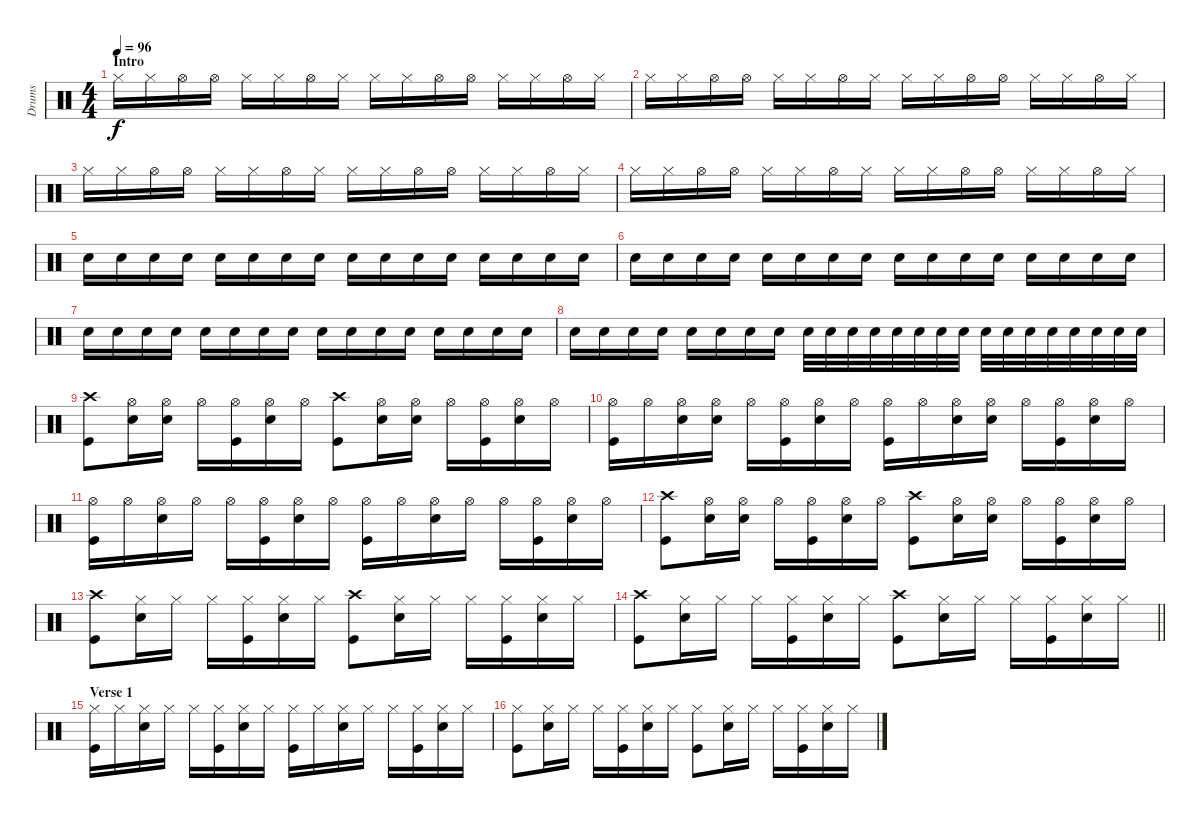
\track ("Drums" "Drums") {instrument percussion}
\staff {score}
\articulation defaults
\ts (4 4)
\section ("" "Intro")
\tempo 96
\clef neutral
\ks c "Hi-Hat (closed)".16{dy f} "Hi-Hat (closed)".16 "Hi-Hat (open)".16 "Hi-Hat (open)".16 "Hi-Hat (closed)".16 "Hi-Hat (closed)".16 "Hi-Hat (open)".16 "Hi-Hat (closed)".16 "Hi-Hat (closed)".16 "Hi-Hat (closed)".16 "Hi-Hat (open)".16 "Hi-Hat (open)".16 "Hi-Hat (closed)".16 "Hi-Hat (closed)".16 "Hi-Hat (open)".16 "Hi-Hat (closed)".16
|
"Hi-Hat (closed)".16 "Hi-Hat (closed)".16 "Hi-Hat (open)".16 "Hi-Hat (open)".16 "Hi-Hat (closed)".16 "Hi-Hat (closed)".16 "Hi-Hat (open)".16 "Hi-Hat (closed)".16 "Hi-Hat (closed)".16 "Hi-Hat (closed)".16 "Hi-Hat (open)".16 "Hi-Hat (open)".16 "Hi-Hat (closed)".16 "Hi-Hat (closed)".16 "Hi-Hat (open)".16 "Hi-Hat (closed)".16 |
"Hi-Hat (closed)".16 "Hi-Hat (closed)".16 "Hi-Hat (open)".16 "Hi-Hat (open)".16 "Hi-Hat (closed)".16 "Hi-Hat (closed)".16 "Hi-Hat (open)".16 "Hi-Hat (closed)".16 "Hi-Hat (closed)".16 "Hi-Hat (closed)".16 "Hi-Hat (open)".16 "Hi-Hat (open)".16 "Hi-Hat (closed)".16 "Hi-Hat (closed)".16 "Hi-Hat (open)".16 "Hi-Hat (closed)".16 |
"Hi-Hat (closed)".16 "Hi-Hat (closed)".16 "Hi-Hat (open)".16 "Hi-Hat (open)".16 "Hi-Hat (closed)".16 "Hi-Hat (closed)".16 "Hi-Hat (open)".16 "Hi-Hat (closed)".16 "Hi-Hat (closed)".16 "Hi-Hat (closed)".16 "Hi-Hat (open)".16 "Hi-Hat (open)".16 "Hi-Hat (closed)".16 "Hi-Hat (closed)".16 "Hi-Hat (open)".16 "Hi-Hat (closed)".16 |
"Snare (hit) 2".16{volume 3} "Snare (hit) 2".16 "Snare (hit) 2".16 "Snare (hit) 2".16 "Snare (hit) 2".16 "Snare (hit) 2".16 "Snare (hit) 2".16 "Snare (hit) 2".16 "Snare (hit) 2".16 "Snare (hit) 2".16 "Snare (hit) 2".16 "Snare (hit) 2".16 "Snare (hit) 2".16 "Snare (hit) 2".16 "Snare (hit) 2".16 "Snare (hit) 2".16 |
"Snare (hit) 2".16{volume 7} "Snare (hit) 2".16 "Snare (hit) 2".16 "Snare (hit) 2".16 "Snare (hit) 2".16 "Snare (hit) 2".16 "Snare (hit) 2".16 "Snare (hit) 2".16 "Snare (hit) 2".16 "Snare (hit) 2".16 "Snare (hit) 2".16 "Snare (hit) 2".16 "Snare (hit) 2".16 "Snare (hit) 2".16 "Snare (hit) 2".16 "Snare (hit) 2".16 |
"Snare (hit) 2".16{volume 10} "Snare (hit) 2".16 "Snare (hit) 2".16 "Snare (hit) 2".16 "Snare (hit) 2".16 "Snare (hit) 2".16 "Snare (hit) 2".16 "Snare (hit) 2".16 "Snare (hit) 2".16 "Snare (hit) 2".16 "Snare (hit) 2".16 "Snare (hit) 2".16 "Snare (hit) 2".16 "Snare (hit) 2".16 "Snare (hit) 2".16 "Snare (hit) 2".16 |
"Snare (hit) 2".16{volume 13} "Snare (hit) 2".16 "Snare (hit) 2".16 "Snare (hit) 2".16 "Snare (hit) 2".16 "Snare (hit) 2".16 "Snare (hit) 2".16 "Snare (hit) 2".16 "Snare (hit) 2".32 "Snare (hit) 2".32 "Snare (hit) 2".32 "Snare (hit) 2".32 "Snare (hit) 2".32 "Snare (hit) 2".32 "Snare (hit) 2".32 "Snare (hit) 2".32 "Snare (hit) 2".32 "Snare (hit) 2".32 "Snare (hit) 2".32 "Snare (hit) 2".32 "Snare (hit) 2".32 "Snare (hit) 2".32 "Snare (hit) 2".32 "Snare (hit) 2".32 |
("Crash high (hit)" "Kick (hit)").8 ("Hi-Hat (open)" "Snare (hit) 2").16 ("Hi-Hat (open)" "Snare (hit) 2").16 "Hi-Hat (open)".16 ("Hi-Hat (open)" "Kick (hit)").16 ("Hi-Hat (open)" "Snare (hit) 2").16 "Hi-Hat (open)".16 ("Crash high (hit)" "Kick (hit)").8 ("Hi-Hat (open)" "Snare (hit) 2").16 ("Hi-Hat (open)" "Snare (hit) 2").16 "Hi-Hat (open)".16 ("Hi-Hat (open)" "Kick (hit)").16 ("Hi-Hat (open)" "Snare (hit) 2").16 "Hi-Hat (open)".16 |
("Hi-Hat (open)" "Kick (hit)").16 "Hi-Hat (open)".16 ("Hi-Hat (open)" "Snare (hit) 2").16 ("Hi-Hat (open)" "Snare (hit) 2").16 "Hi-Hat (open)".16 ("Hi-Hat (open)" "Kick (hit)").16 ("Hi-Hat (open)" "Snare (hit) 2").16 "Hi-Hat (open)".16 ("Hi-Hat (open)" "Kick (hit)").16 "Hi-Hat (open)".16 ("Hi-Hat (open)" "Snare (hit) 2").16 ("Hi-Hat (open)" "Snare (hit) 2").16 "Hi-Hat (open)".16 ("Hi-Hat (open)" "Kick (hit)").16 ("Hi-Hat (open)" "Snare (hit) 2").16 "Hi-Hat (open)".16 |
("Hi-Hat (open)" "Kick (hit)").16 "Hi-Hat (open)".16 ("Hi-Hat (open)" "Snare (hit) 2").16 "Hi-Hat (open)".16 "Hi-Hat (open)".16 ("Hi-Hat (open)" "Kick (hit)").16 ("Hi-Hat (open)" "Snare (hit) 2").16 "Hi-Hat (open)".16 ("Hi-Hat (open)" "Kick (hit)").16 "Hi-Hat (open)".16 ("Hi-Hat (open)" "Snare (hit) 2").16 "Hi-Hat (open)".16 "Hi-Hat (open)".16 ("Hi-Hat (open)" "Kick (hit)").16 ("Hi-Hat (open)" "Snare (hit) 2").16 "Hi-Hat (open)".16 |
("Crash high (hit)" "Kick (hit)").8 ("Hi-Hat (open)" "Snare (hit) 2").16 ("Hi-Hat (open)" "Snare (hit) 2").16 "Hi-Hat (open)".16 ("Hi-Hat (open)" "Kick (hit)").16 ("Hi-Hat (open)" "Snare (hit) 2").16 "Hi-Hat (open)".16 ("Crash high (hit)" "Kick (hit)").8 ("Hi-Hat (open)" "Snare (hit) 2").16 ("Hi-Hat (open)" "Snare (hit) 2").16 "Hi-Hat (open)".16 ("Hi-Hat (open)" "Kick (hit)").16 ("Hi-Hat (open)" "Snare (hit) 2").16 "Hi-Hat (open)".16 |
("Crash high (hit)" "Kick (hit)").8 ("Hi-Hat (closed)" "Snare (hit) 2").16 "Hi-Hat (closed)".16 "Hi-Hat (closed)".16 ("Hi-Hat (closed)" "Kick (hit)").16 ("Hi-Hat (closed)" "Snare (hit) 2").16 "Hi-Hat (closed)".16 ("Crash high (hit)" "Kick (hit)").8 ("Hi-Hat (closed)" "Snare (hit) 2").16 "Hi-Hat (closed)".16 "Hi-Hat (closed)".16 ("Hi-Hat (closed)" "Kick (hit)").16 ("Hi-Hat (closed)" "Snare (hit) 2").16 "Hi-Hat (closed)".16 |
\barLineRight lightlight
("Crash high (hit)" "Kick (hit)").8 ("Hi-Hat (closed)" "Snare (hit) 2").16 "Hi-Hat (closed)".16 "Hi-Hat (closed)".16 ("Hi-Hat (closed)" "Kick (hit)").16 ("Hi-Hat (closed)" "Snare (hit) 2").16 "Hi-Hat (closed)".16 ("Crash high (hit)" "Kick (hit)").8 ("Hi-Hat (closed)" "Snare (hit) 2").16 "Hi-Hat (closed)".16 "Hi-Hat (closed)".16 ("Hi-Hat (closed)" "Kick (hit)").16 ("Hi-Hat (closed)" "Snare (hit) 2").16 "Hi-Hat (closed)".16 |
\section ("" "Verse 1")
("Hi-Hat (closed)" "Kick (hit)").16 "Hi-Hat (closed)".16 ("Hi-Hat (closed)" "Snare (hit) 2").16 "Hi-Hat (closed)".16 "Hi-Hat (closed)".16 ("Hi-Hat (closed)" "Kick (hit)").16 ("Hi-Hat (closed)" "Snare (hit) 2").16 "Hi-Hat (closed)".16 ("Hi-Hat (closed)" "Kick (hit)").16 "Hi-Hat (closed)".16 ("Hi-Hat (closed)" "Snare (hit) 2").16 "Hi-Hat (closed)".16 "Hi-Hat (closed)".16 ("Hi-Hat (closed)" "Kick (hit)").16 ("Hi-Hat (closed)" "Snare (hit) 2").16 "Hi-Hat (closed)".16 |
("Hi-Hat (closed)" "Kick (hit)").8 ("Hi-Hat (closed)" "Snare (hit) 2").16 "Hi-Hat (closed)".16 "Hi-Hat (closed)".16 ("Hi-Hat (closed)" "Kick (hit)").16 ("Hi-Hat (closed)" "Snare (hit) 2").16 "Hi-Hat (closed)".16 ("Hi-Hat (closed)" "Kick (hit)").8 ("Hi-Hat (closed)" "Snare (hit) 2").16 "Hi-Hat (closed)".16 "Hi-Hat (closed)".16 ("Hi-Hat (closed)" "Kick (hit)").16 ("Hi-Hat (closed)" "Snare (hit) 2").16 "Hi-Hat (closed)".16
